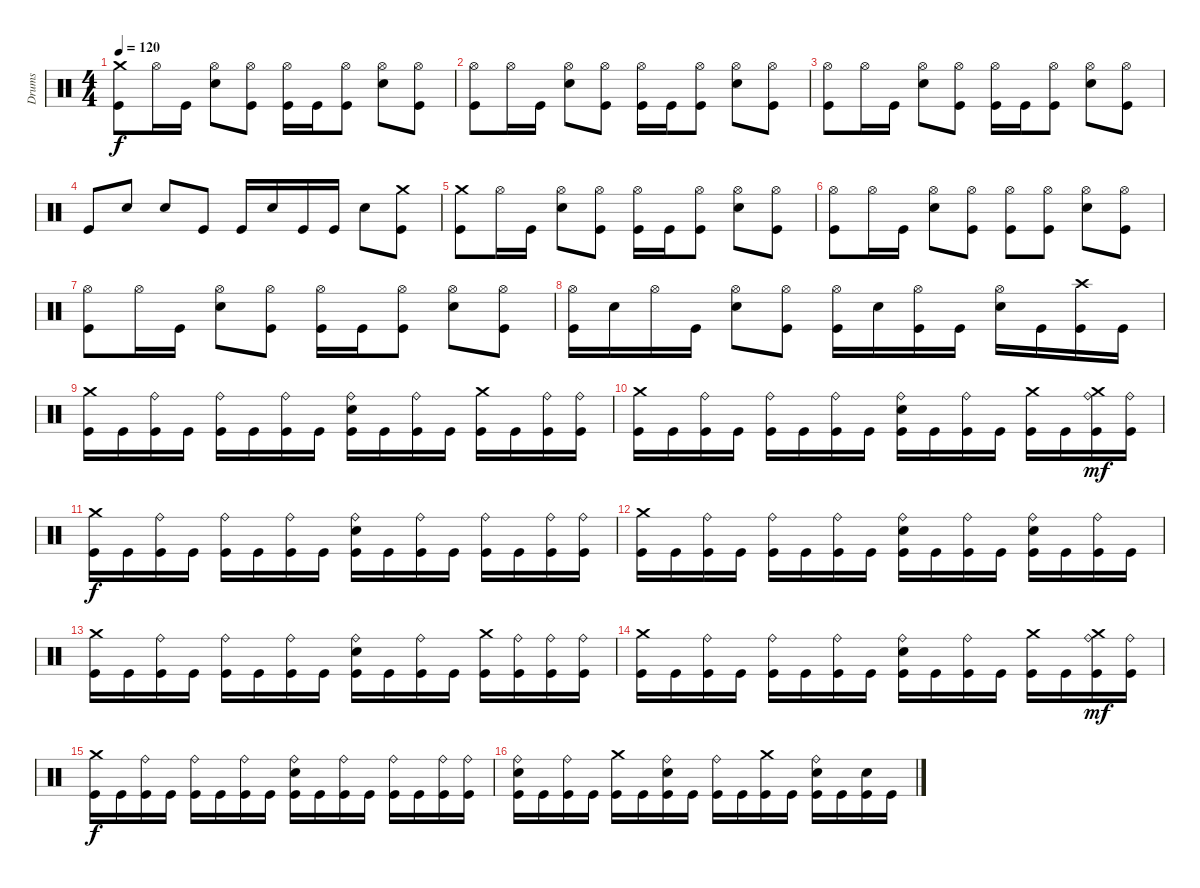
\track ("Drums" "Drums") {instrument percussion}
\staff {score}
\articulation defaults
\ts (4 4)
\tempo 120
\clef neutral
\ks c
("Kick (hit)" "Crash medium (hit)").8{dy f} "Hi-Hat (open)".16 "Kick (hit)".16 ("Electric Snare (hit)" "Hi-Hat (open)").8 ("Kick (hit)" "Hi-Hat (open)").8 ("Kick (hit)" "Hi-Hat (open)").16 "Kick (hit)".16 ("Kick (hit)" "Hi-Hat (open)").8 ("Electric Snare (hit)" "Hi-Hat (open)").8 ("Kick (hit)" "Hi-Hat (open)").8 |
("Kick (hit)" "Hi-Hat (open)").8 "Hi-Hat (open)".16 "Kick (hit)".16 ("Electric Snare (hit)" "Hi-Hat (open)").8 ("Kick (hit)" "Hi-Hat (open)").8 ("Kick (hit)" "Hi-Hat (open)").16 "Kick (hit)".16 ("Kick (hit)" "Hi-Hat (open)").8 ("Electric Snare (hit)" "Hi-Hat (open)").8 ("Kick (hit)" "Hi-Hat (open)").8 |
("Kick (hit)" "Hi-Hat (open)").8 "Hi-Hat (open)".16 "Kick (hit)".16 ("Electric Snare (hit)" "Hi-Hat (open)").8 ("Kick (hit)" "Hi-Hat (open)").8 ("Kick (hit)" "Hi-Hat (open)").16 "Kick (hit)".16 ("Kick (hit)" "Hi-Hat (open)").8 ("Electric Snare (hit)" "Hi-Hat (open)").8 ("Kick (hit)" "Hi-Hat (open)").8 |
"Kick (hit)".8 "Electric Snare (hit)".8 "Electric Snare (hit)".8 "Kick (hit)".8 "Kick (hit)".16 "Electric Snare (hit)".16 "Kick (hit)".16 "Kick (hit)".16 "Electric Snare (hit)".8 ("Kick (hit)" "Crash medium (hit)").8 |
("Kick (hit)" "Crash medium (hit)").8 "Hi-Hat (open)".16 "Kick (hit)".16 ("Electric Snare (hit)" "Hi-Hat (open)").8 ("Kick (hit)" "Hi-Hat (open)").8 ("Kick (hit)" "Hi-Hat (open)").16 "Kick (hit)".16 ("Kick (hit)" "Hi-Hat (open)").8 ("Electric Snare (hit)" "Hi-Hat (open)").8 ("Kick (hit)" "Hi-Hat (open)").8 |
("Kick (hit)" "Hi-Hat (open)").8 "Hi-Hat (open)".16 "Kick (hit)".16 ("Electric Snare (hit)" "Hi-Hat (open)").8 ("Kick (hit)" "Hi-Hat (open)").8 ("Kick (hit)" "Hi-Hat (open)").8 ("Kick (hit)" "Hi-Hat (open)").8 ("Electric Snare (hit)" "Hi-Hat (open)").8 ("Kick (hit)" "Hi-Hat (open)").8 |
("Kick (hit)" "Hi-Hat (open)").8 "Hi-Hat (open)".16 "Kick (hit)".16 ("Electric Snare (hit)" "Hi-Hat (open)").8 ("Kick (hit)" "Hi-Hat (open)").8 ("Kick (hit)" "Hi-Hat (open)").16 "Kick (hit)".16 ("Kick (hit)" "Hi-Hat (open)").8 ("Electric Snare (hit)" "Hi-Hat (open)").8 ("Kick (hit)" "Hi-Hat (open)").8 |
("Kick (hit)" "Hi-Hat (open)").16 "Electric Snare (hit)".16 "Hi-Hat (open)".16 "Kick (hit)".16 ("Electric Snare (hit)" "Hi-Hat (open)").8 ("Kick (hit)" "Hi-Hat (open)").8 ("Kick (hit)" "Hi-Hat (open)").16 "Electric Snare (hit)".16 ("Kick (hit)" "Hi-Hat (open)").16 "Kick (hit)".16 ("Electric Snare (hit)" "Hi-Hat (open)").16 "Kick (hit)".16 ("Kick (hit)" "Crash high (hit)").16 "Kick (hit)".16 |
("Kick (hit)" "Crash medium (hit)").16 "Kick (hit)".16 ("Kick (hit)" "Ride (bell)").16 "Kick (hit)".16 ("Kick (hit)" "Ride (bell)").16 "Kick (hit)".16 ("Kick (hit)" "Ride (bell)").16 "Kick (hit)".16 ("Kick (hit)" "Electric Snare (hit)" "Ride (bell)").16 "Kick (hit)".16 ("Kick (hit)" "Ride (bell)").16 "Kick (hit)".16 ("Kick (hit)" "Crash medium (hit)").16 "Kick (hit)".16 ("Kick (hit)" "Ride (bell)").16 ("Kick (hit)" "Ride (bell)").16 |
("Kick (hit)" "Crash medium (hit)").16 "Kick (hit)".16 ("Kick (hit)" "Ride (bell)").16 "Kick (hit)".16 ("Kick (hit)" "Ride (bell)").16 "Kick (hit)".16 ("Kick (hit)" "Ride (bell)").16 "Kick (hit)".16 ("Kick (hit)" "Electric Snare (hit)" "Ride (bell)").16 "Kick (hit)".16 ("Kick (hit)" "Ride (bell)").16 "Kick (hit)".16 ("Kick (hit)" "Crash medium (hit)").16 "Kick (hit)".16 ("Kick (hit)" "Ride (bell)" "Crash medium (hit)").16{dy mf} ("Kick (hit)" "Ride (bell)").16 |
("Kick (hit)" "Crash medium (hit)").16{dy f} "Kick (hit)".16 ("Kick (hit)" "Ride (bell)").16 "Kick (hit)".16 ("Kick (hit)" "Ride (bell)").16 "Kick (hit)".16 ("Kick (hit)" "Ride (bell)").16 "Kick (hit)".16 ("Kick (hit)" "Electric Snare (hit)" "Ride (bell)").16 "Kick (hit)".16 ("Kick (hit)" "Ride (bell)").16 "Kick (hit)".16 ("Kick (hit)" "Ride (bell)").16 "Kick (hit)".16 ("Kick (hit)" "Ride (bell)").16 ("Kick (hit)" "Ride (bell)").16 |
("Kick (hit)" "Crash medium (hit)").16 "Kick (hit)".16 ("Kick (hit)" "Ride (bell)").16 "Kick (hit)".16 ("Kick (hit)" "Ride (bell)").16 "Kick (hit)".16 ("Kick (hit)" "Ride (bell)").16 "Kick (hit)".16 ("Kick (hit)" "Electric Snare (hit)" "Ride (bell)").16 "Kick (hit)".16 ("Kick (hit)" "Ride (bell)").16 "Kick (hit)".16 ("Kick (hit)" "Electric Snare (hit)" "Ride (bell)").16 "Kick (hit)".16 ("Kick (hit)" "Ride (bell)").16 "Kick (hit)".16 |
("Kick (hit)" "Crash medium (hit)").16 "Kick (hit)".16 ("Kick (hit)" "Ride (bell)").16 "Kick (hit)".16 ("Kick (hit)" "Ride (bell)").16 "Kick (hit)".16 ("Kick (hit)" "Ride (bell)").16 "Kick (hit)".16 ("Kick (hit)" "Electric Snare (hit)" "Ride (bell)").16 "Kick (hit)".16 ("Kick (hit)" "Ride (bell)").16 "Kick (hit)".16 ("Kick (hit)" "Crash medium (hit)").16 ("Kick (hit)" "Ride (bell)").16 ("Kick (hit)" "Ride (bell)").16 ("Kick (hit)" "Ride (bell)").16 |
("Kick (hit)" "Crash medium (hit)").16 "Kick (hit)".16 ("Kick (hit)" "Ride (bell)").16 "Kick (hit)".16 ("Kick (hit)" "Ride (bell)").16 "Kick (hit)".16 ("Kick (hit)" "Ride (bell)").16 "Kick (hit)".16 ("Kick (hit)" "Electric Snare (hit)" "Ride (bell)").16 "Kick (hit)".16 ("Kick (hit)" "Ride (bell)").16 "Kick (hit)".16 ("Kick (hit)" "Crash medium (hit)").16 "Kick (hit)".16 ("Kick (hit)" "Ride (bell)" "Crash medium (hit)").16{dy mf} ("Kick (hit)" "Ride (bell)").16 |
("Kick (hit)" "Crash medium (hit)").16{dy f} "Kick (hit)".16 ("Kick (hit)" "Ride (bell)").16 "Kick (hit)".16 ("Kick (hit)" "Ride (bell)").16 "Kick (hit)".16 ("Kick (hit)" "Ride (bell)").16 "Kick (hit)".16 ("Kick (hit)" "Electric Snare (hit)" "Ride (bell)").16 "Kick (hit)".16 ("Kick (hit)" "Ride (bell)").16 "Kick (hit)".16 ("Kick (hit)" "Ride (bell)").16 "Kick (hit)".16 ("Kick (hit)" "Ride (bell)").16 ("Kick (hit)" "Ride (bell)").16 |
("Kick (hit)" "Electric Snare (hit)" "Ride (bell)").16 "Kick (hit)".16 ("Kick (hit)" "Ride (bell)").16 "Kick (hit)".16 ("Kick (hit)" "Crash medium (hit)").16 "Kick (hit)".16 ("Kick (hit)" "Electric Snare (hit)" "Ride (bell)").16 "Kick (hit)".16 ("Kick (hit)" "Ride (bell)").16 "Kick (hit)".16 ("Kick (hit)" "Crash medium (hit)").16 "Kick (hit)".16 ("Kick (hit)" "Electric Snare (hit)" "Ride (bell)").16 "Kick (hit)".16 ("Kick (hit)" "Electric Snare (hit)").16 "Kick (hit)".16
